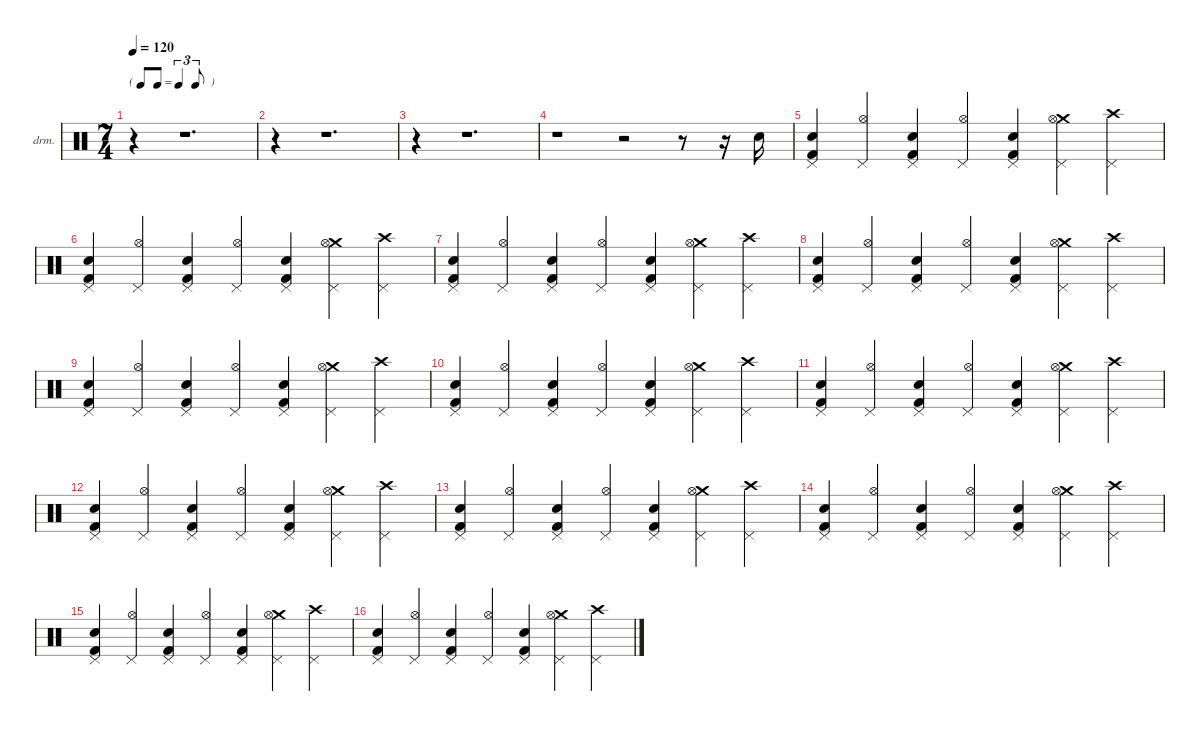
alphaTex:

\defaultSystemsLayout 4
\hideDynamics
\bracketExtendMode nobrackets
\firstSystemTrackNameOrientation horizontal
\otherSystemsTrackNameOrientation horizontal
\track ("Percussions" "drm.") {instrument percussion}
\staff {score}
\articulation defaults
\ts (7 4)
\beaming (8 6 4 4)
\tf triplet8th
\tempo 120
\clef neutral
\ks c
r.4{dy f beam Down} r.1{d beam Down} |
r.4{beam Down} r.1{d beam Down} |
r.4{beam Down} r.1{d beam Down} |
r.1{beam Down} r.2{beam Down} r.8{beam Down} r.16{beam Down} "Snare (hit) 2".16{beam Down} |
("Kick (hit) 2" "Snare (hit) 2" "Pedal Hi-Hat (hit)").4{beam Up} ("Hi-Hat (open)" "Pedal Hi-Hat (hit)").4{beam Up} ("Kick (hit) 2" "Snare (hit) 2" "Pedal Hi-Hat (hit)").4{beam Up} ("Hi-Hat (open)" "Pedal Hi-Hat (hit)").4{beam Up} ("Kick (hit) 2" "Snare (hit) 2" "Pedal Hi-Hat (hit)").4{beam Up} ("Crash medium (hit)" "Hi-Hat (open)" "Pedal Hi-Hat (hit)").4{beam Down} ("Crash high (hit)" "Pedal Hi-Hat (hit)").4{beam Down} |
("Kick (hit) 2" "Snare (hit) 2" "Pedal Hi-Hat (hit)").4{beam Up} ("Hi-Hat (open)" "Pedal Hi-Hat (hit)").4{beam Up} ("Kick (hit) 2" "Snare (hit) 2" "Pedal Hi-Hat (hit)").4{beam Up} ("Hi-Hat (open)" "Pedal Hi-Hat (hit)").4{beam Up} ("Kick (hit) 2" "Snare (hit) 2" "Pedal Hi-Hat (hit)").4{beam Up} ("Crash medium (hit)" "Hi-Hat (open)" "Pedal Hi-Hat (hit)").4{beam Down} ("Crash high (hit)" "Pedal Hi-Hat (hit)").4{beam Down} |
("Kick (hit) 2" "Snare (hit) 2" "Pedal Hi-Hat (hit)").4{beam Up} ("Hi-Hat (open)" "Pedal Hi-Hat (hit)").4{beam Up} ("Kick (hit) 2" "Snare (hit) 2" "Pedal Hi-Hat (hit)").4{beam Up} ("Hi-Hat (open)" "Pedal Hi-Hat (hit)").4{beam Up} ("Kick (hit) 2" "Snare (hit) 2" "Pedal Hi-Hat (hit)").4{beam Up} ("Crash medium (hit)" "Hi-Hat (open)" "Pedal Hi-Hat (hit)").4{beam Down} ("Crash high (hit)" "Pedal Hi-Hat (hit)").4{beam Down} |
("Kick (hit) 2" "Snare (hit) 2" "Pedal Hi-Hat (hit)").4{beam Up} ("Hi-Hat (open)" "Pedal Hi-Hat (hit)").4{beam Up} ("Kick (hit) 2" "Snare (hit) 2" "Pedal Hi-Hat (hit)").4{beam Up} ("Hi-Hat (open)" "Pedal Hi-Hat (hit)").4{beam Up} ("Kick (hit) 2" "Snare (hit) 2" "Pedal Hi-Hat (hit)").4{beam Up} ("Crash medium (hit)" "Hi-Hat (open)" "Pedal Hi-Hat (hit)").4{beam Down} ("Crash high (hit)" "Pedal Hi-Hat (hit)").4{beam Down} |
("Kick (hit) 2" "Snare (hit) 2" "Pedal Hi-Hat (hit)").4{beam Up} ("Hi-Hat (open)" "Pedal Hi-Hat (hit)").4{beam Up} ("Kick (hit) 2" "Snare (hit) 2" "Pedal Hi-Hat (hit)").4{beam Up} ("Hi-Hat (open)" "Pedal Hi-Hat (hit)").4{beam Up} ("Kick (hit) 2" "Snare (hit) 2" "Pedal Hi-Hat (hit)").4{beam Up} ("Crash medium (hit)" "Hi-Hat (open)" "Pedal Hi-Hat (hit)").4{beam Down} ("Crash high (hit)" "Pedal Hi-Hat (hit)").4{beam Down} |
("Kick (hit) 2" "Snare (hit) 2" "Pedal Hi-Hat (hit)").4{beam Up} ("Hi-Hat (open)" "Pedal Hi-Hat (hit)").4{beam Up} ("Kick (hit) 2" "Snare (hit) 2" "Pedal Hi-Hat (hit)").4{beam Up} ("Hi-Hat (open)" "Pedal Hi-Hat (hit)").4{beam Up} ("Kick (hit) 2" "Snare (hit) 2" "Pedal Hi-Hat (hit)").4{beam Up} ("Crash medium (hit)" "Hi-Hat (open)" "Pedal Hi-Hat (hit)").4{beam Down} ("Crash high (hit)" "Pedal Hi-Hat (hit)").4{beam Down} |
("Kick (hit) 2" "Snare (hit) 2" "Pedal Hi-Hat (hit)").4{beam Up} ("Hi-Hat (open)" "Pedal Hi-Hat (hit)").4{beam Up} ("Kick (hit) 2" "Snare (hit) 2" "Pedal Hi-Hat (hit)").4{beam Up} ("Hi-Hat (open)" "Pedal Hi-Hat (hit)").4{beam Up} ("Kick (hit) 2" "Snare (hit) 2" "Pedal Hi-Hat (hit)").4{beam Up} ("Crash medium (hit)" "Hi-Hat (open)" "Pedal Hi-Hat (hit)").4{beam Down} ("Crash high (hit)" "Pedal Hi-Hat (hit)").4{beam Down} |
("Kick (hit) 2" "Snare (hit) 2" "Pedal Hi-Hat (hit)").4{beam Up} ("Hi-Hat (open)" "Pedal Hi-Hat (hit)").4{beam Up} ("Kick (hit) 2" "Snare (hit) 2" "Pedal Hi-Hat (hit)").4{beam Up} ("Hi-Hat (open)" "Pedal Hi-Hat (hit)").4{beam Up} ("Kick (hit) 2" "Snare (hit) 2" "Pedal Hi-Hat (hit)").4{beam Up} ("Crash medium (hit)" "Hi-Hat (open)" "Pedal Hi-Hat (hit)").4{beam Down} ("Crash high (hit)" "Pedal Hi-Hat (hit)").4{beam Down} |
("Kick (hit) 2" "Snare (hit) 2" "Pedal Hi-Hat (hit)").4{beam Up} ("Hi-Hat (open)" "Pedal Hi-Hat (hit)").4{beam Up} ("Kick (hit) 2" "Snare (hit) 2" "Pedal Hi-Hat (hit)").4{beam Up} ("Hi-Hat (open)" "Pedal Hi-Hat (hit)").4{beam Up} ("Kick (hit) 2" "Snare (hit) 2" "Pedal Hi-Hat (hit)").4{beam Up} ("Crash medium (hit)" "Hi-Hat (open)" "Pedal Hi-Hat (hit)").4{beam Down} ("Crash high (hit)" "Pedal Hi-Hat (hit)").4{beam Down} |
("Kick (hit) 2" "Snare (hit) 2" "Pedal Hi-Hat (hit)").4{beam Up} ("Hi-Hat (open)" "Pedal Hi-Hat (hit)").4{beam Up} ("Kick (hit) 2" "Snare (hit) 2" "Pedal Hi-Hat (hit)").4{beam Up} ("Hi-Hat (open)" "Pedal Hi-Hat (hit)").4{beam Up} ("Kick (hit) 2" "Snare (hit) 2" "Pedal Hi-Hat (hit)").4{beam Up} ("Crash medium (hit)" "Hi-Hat (open)" "Pedal Hi-Hat (hit)").4{beam Down} ("Crash high (hit)" "Pedal Hi-Hat (hit)").4{beam Down} |
("Kick (hit) 2" "Snare (hit) 2" "Pedal Hi-Hat (hit)").4{beam Up} ("Hi-Hat (open)" "Pedal Hi-Hat (hit)").4{beam Up} ("Kick (hit) 2" "Snare (hit) 2" "Pedal Hi-Hat (hit)").4{beam Up} ("Hi-Hat (open)" "Pedal Hi-Hat (hit)").4{beam Up} ("Kick (hit) 2" "Snare (hit) 2" "Pedal Hi-Hat (hit)").4{beam Up} ("Crash medium (hit)" "Hi-Hat (open)" "Pedal Hi-Hat (hit)").4{beam Down} ("Crash high (hit)" "Pedal Hi-Hat (hit)").4{beam Down} |
("Kick (hit) 2" "Snare (hit) 2" "Pedal Hi-Hat (hit)").4{beam Up} ("Hi-Hat (open)" "Pedal Hi-Hat (hit)").4{beam Up} ("Kick (hit) 2" "Snare (hit) 2" "Pedal Hi-Hat (hit)").4{beam Up} ("Hi-Hat (open)" "Pedal Hi-Hat (hit)").4{beam Up} ("Kick (hit) 2" "Snare (hit) 2" "Pedal Hi-Hat (hit)").4{beam Up} ("Crash medium (hit)" "Hi-Hat (open)" "Pedal Hi-Hat (hit)").4{beam Down} ("Crash high (hit)" "Pedal Hi-Hat (hit)").4{beam Down}
